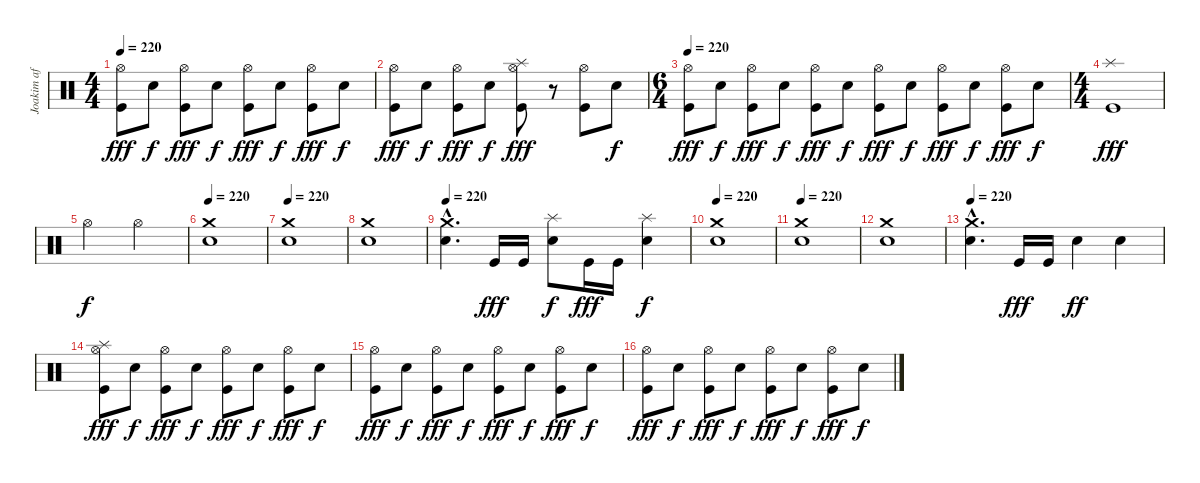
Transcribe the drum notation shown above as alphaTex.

\track ("Joakim af Grave" "Joakim af ") {instrument percussion}
\staff {score}
\articulation defaults
\ts (4 4)
\tempo 220
\clef neutral
\ks c
("Hi-Hat (open)" "Kick (hit)").8{dy fff} "Electric Snare (hit)".8{dy f} ("Hi-Hat (open)" "Kick (hit)").8{dy fff} "Electric Snare (hit)".8{dy f} ("Hi-Hat (open)" "Kick (hit)").8{dy fff} "Electric Snare (hit)".8{dy f} ("Hi-Hat (open)" "Kick (hit)").8{dy fff} "Electric Snare (hit)".8{dy f} |
("Hi-Hat (open)" "Kick (hit)").8{dy fff} "Electric Snare (hit)".8{dy f} ("Hi-Hat (open)" "Kick (hit)").8{dy fff} "Electric Snare (hit)".8{dy f} ("Splash (hit)" "Hi-Hat (open)" "Kick (hit)").8{dy fff} r.8 ("Hi-Hat (open)" "Kick (hit)").8 "Electric Snare (hit)".8{dy f} |
\ts (6 4)
\tempo 220
("Hi-Hat (open)" "Kick (hit)").8{dy fff} "Electric Snare (hit)".8{dy f} ("Hi-Hat (open)" "Kick (hit)").8{dy fff} "Electric Snare (hit)".8{dy f} ("Hi-Hat (open)" "Kick (hit)").8{dy fff} "Electric Snare (hit)".8{dy f} ("Hi-Hat (open)" "Kick (hit)").8{dy fff} "Electric Snare (hit)".8{dy f} ("Hi-Hat (open)" "Kick (hit)").8{dy fff} "Electric Snare (hit)".8{dy f} ("Hi-Hat (open)" "Kick (hit)").8{dy fff} "Electric Snare (hit)".8{dy f} |
\ts (4 4)
("Kick (hit)" "Splash (hit)").1{dy fff} |
"Hi-Hat (open)".2{dy f} "Hi-Hat (open)".2 |
\tempo 220
("Crash medium (hit)" "Electric Snare (hit)").1 |
\tempo 220
("Crash medium (hit)" "Electric Snare (hit)").1 |
("Crash medium (hit)" "Electric Snare (hit)").1 |
\tempo 220
("Crash medium (hit)"{hac} "Electric Snare (hit)"{hac}).4{d} "Kick (hit)".16{dy fff} "Kick (hit)".16 ("Splash (hit)" "Electric Snare (hit)").8{dy f} "Kick (hit)".16{dy fff} "Kick (hit)".16 ("Splash (hit)" "Electric Snare (hit)").4{dy f} |
\tempo 220
("Crash medium (hit)" "Electric Snare (hit)").1 |
\tempo 220
("Crash medium (hit)" "Electric Snare (hit)").1 |
("Crash medium (hit)" "Electric Snare (hit)").1 |
\tempo 220
("Crash medium (hit)"{hac} "Electric Snare (hit)"{hac}).4{d} "Kick (hit)".16{dy fff} "Kick (hit)".16 "Electric Snare (hit)".4{dy ff} "Electric Snare (hit)".4 |
("Splash (hit)" "Hi-Hat (open)" "Kick (hit)").8{dy fff} "Electric Snare (hit)".8{dy f} ("Hi-Hat (open)" "Kick (hit)").8{dy fff} "Electric Snare (hit)".8{dy f} ("Hi-Hat (open)" "Kick (hit)").8{dy fff} "Electric Snare (hit)".8{dy f} ("Hi-Hat (open)" "Kick (hit)").8{dy fff} "Electric Snare (hit)".8{dy f} |
("Hi-Hat (open)" "Kick (hit)").8{dy fff} "Electric Snare (hit)".8{dy f} ("Hi-Hat (open)" "Kick (hit)").8{dy fff} "Electric Snare (hit)".8{dy f} ("Hi-Hat (open)" "Kick (hit)").8{dy fff} "Electric Snare (hit)".8{dy f} ("Hi-Hat (open)" "Kick (hit)").8{dy fff} "Electric Snare (hit)".8{dy f} |
("Hi-Hat (open)" "Kick (hit)").8{dy fff} "Electric Snare (hit)".8{dy f} ("Hi-Hat (open)" "Kick (hit)").8{dy fff} "Electric Snare (hit)".8{dy f} ("Hi-Hat (open)" "Kick (hit)").8{dy fff} "Electric Snare (hit)".8{dy f} ("Hi-Hat (open)" "Kick (hit)").8{dy fff} "Electric Snare (hit)".8{dy f}
